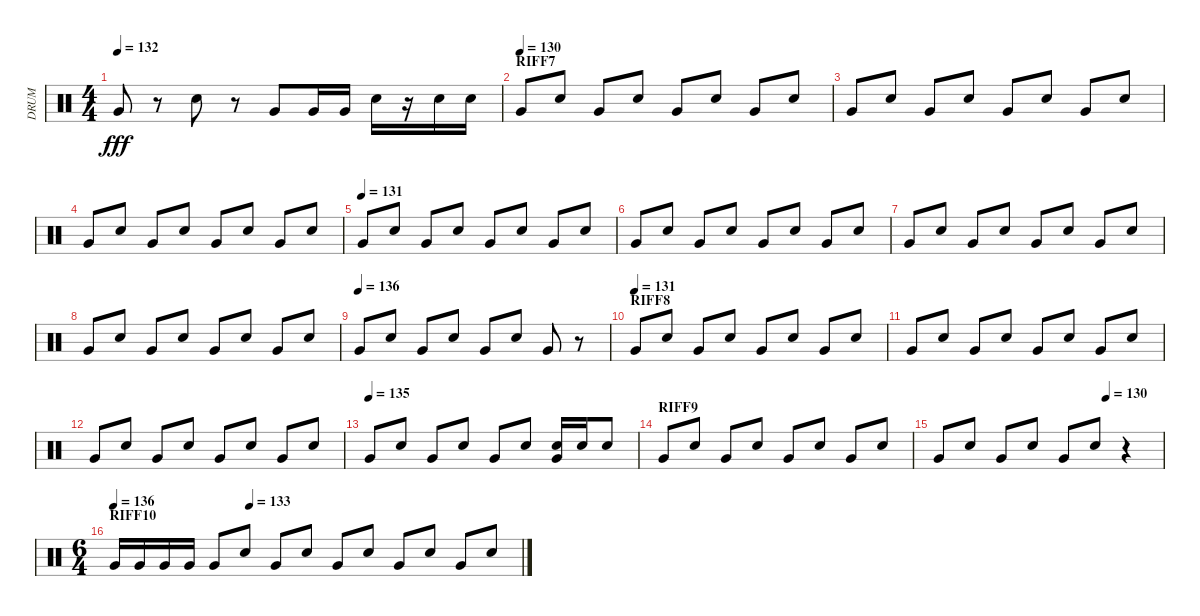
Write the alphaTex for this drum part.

\track ("DRUM" "DRUM") {instrument percussion}
\staff {score}
\articulation defaults
\ts (4 4)
\tempo 132
\clef neutral
\ks c "Very Low Tom (hit)".8{dy fff}
r.8 "Electric Snare (hit)".8 r.8 "Very Low Tom (hit)".8 "Very Low Tom (hit)".16 "Very Low Tom (hit)".16 "Electric Snare (hit)".16 r.16 "Electric Snare (hit)".16 "Electric Snare (hit)".16 |
\section ("" "RIFF7")
\tempo (130)
"Very Low Tom (hit)".8 "Electric Snare (hit)".8 "Very Low Tom (hit)".8 "Electric Snare (hit)".8 "Very Low Tom (hit)".8 "Electric Snare (hit)".8 "Very Low Tom (hit)".8 "Electric Snare (hit)".8 |
"Very Low Tom (hit)".8 "Electric Snare (hit)".8 "Very Low Tom (hit)".8 "Electric Snare (hit)".8 "Very Low Tom (hit)".8 "Electric Snare (hit)".8 "Very Low Tom (hit)".8 "Electric Snare (hit)".8 |
"Very Low Tom (hit)".8 "Electric Snare (hit)".8 "Very Low Tom (hit)".8 "Electric Snare (hit)".8 "Very Low Tom (hit)".8 "Electric Snare (hit)".8 "Very Low Tom (hit)".8 "Electric Snare (hit)".8 |
\tempo (131)
"Very Low Tom (hit)".8 "Electric Snare (hit)".8 "Very Low Tom (hit)".8 "Electric Snare (hit)".8 "Very Low Tom (hit)".8 "Electric Snare (hit)".8 "Very Low Tom (hit)".8 "Electric Snare (hit)".8 |
"Very Low Tom (hit)".8 "Electric Snare (hit)".8 "Very Low Tom (hit)".8 "Electric Snare (hit)".8 "Very Low Tom (hit)".8 "Electric Snare (hit)".8 "Very Low Tom (hit)".8 "Electric Snare (hit)".8 |
"Very Low Tom (hit)".8 "Electric Snare (hit)".8 "Very Low Tom (hit)".8 "Electric Snare (hit)".8 "Very Low Tom (hit)".8 "Electric Snare (hit)".8 "Very Low Tom (hit)".8 "Electric Snare (hit)".8 |
"Very Low Tom (hit)".8 "Electric Snare (hit)".8 "Very Low Tom (hit)".8 "Electric Snare (hit)".8 "Very Low Tom (hit)".8 "Electric Snare (hit)".8 "Very Low Tom (hit)".8 "Electric Snare (hit)".8 |
\tempo (136)
"Very Low Tom (hit)".8 "Electric Snare (hit)".8 "Very Low Tom (hit)".8 "Electric Snare (hit)".8 "Very Low Tom (hit)".8 "Electric Snare (hit)".8 "Very Low Tom (hit)".8 r.8 |
\section ("" "RIFF8")
\tempo (131)
"Very Low Tom (hit)".8 "Electric Snare (hit)".8 "Very Low Tom (hit)".8 "Electric Snare (hit)".8 "Very Low Tom (hit)".8 "Electric Snare (hit)".8 "Very Low Tom (hit)".8 "Electric Snare (hit)".8 |
"Very Low Tom (hit)".8 "Electric Snare (hit)".8 "Very Low Tom (hit)".8 "Electric Snare (hit)".8 "Very Low Tom (hit)".8 "Electric Snare (hit)".8 "Very Low Tom (hit)".8 "Electric Snare (hit)".8 |
"Very Low Tom (hit)".8 "Electric Snare (hit)".8 "Very Low Tom (hit)".8 "Electric Snare (hit)".8 "Very Low Tom (hit)".8 "Electric Snare (hit)".8 "Very Low Tom (hit)".8 "Electric Snare (hit)".8 |
\tempo (135)
"Very Low Tom (hit)".8 "Electric Snare (hit)".8 "Very Low Tom (hit)".8 "Electric Snare (hit)".8 "Very Low Tom (hit)".8 "Electric Snare (hit)".8 ("Very Low Tom (hit)" "Electric Snare (hit)").16 "Electric Snare (hit)".16 "Electric Snare (hit)".8 |
\section ("" "RIFF9")
"Very Low Tom (hit)".8 "Electric Snare (hit)".8 "Very Low Tom (hit)".8 "Electric Snare (hit)".8 "Very Low Tom (hit)".8 "Electric Snare (hit)".8 "Very Low Tom (hit)".8 "Electric Snare (hit)".8 |
\tempo (130 0.75)
"Very Low Tom (hit)".8 "Electric Snare (hit)".8 "Very Low Tom (hit)".8 "Electric Snare (hit)".8 "Very Low Tom (hit)".8 "Electric Snare (hit)".8 r.4 |
\ts (6 4)
\section ("" "RIFF10")
\tempo 136
\tempo (133 0.3333333333333333)
"Very Low Tom (hit)".16 "Very Low Tom (hit)".16 "Very Low Tom (hit)".16 "Very Low Tom (hit)".16 "Very Low Tom (hit)".8 "Electric Snare (hit)".8 "Very Low Tom (hit)".8 "Electric Snare (hit)".8 "Very Low Tom (hit)".8 "Electric Snare (hit)".8 "Very Low Tom (hit)".8 "Electric Snare (hit)".8 "Very Low Tom (hit)".8 "Electric Snare (hit)".8
